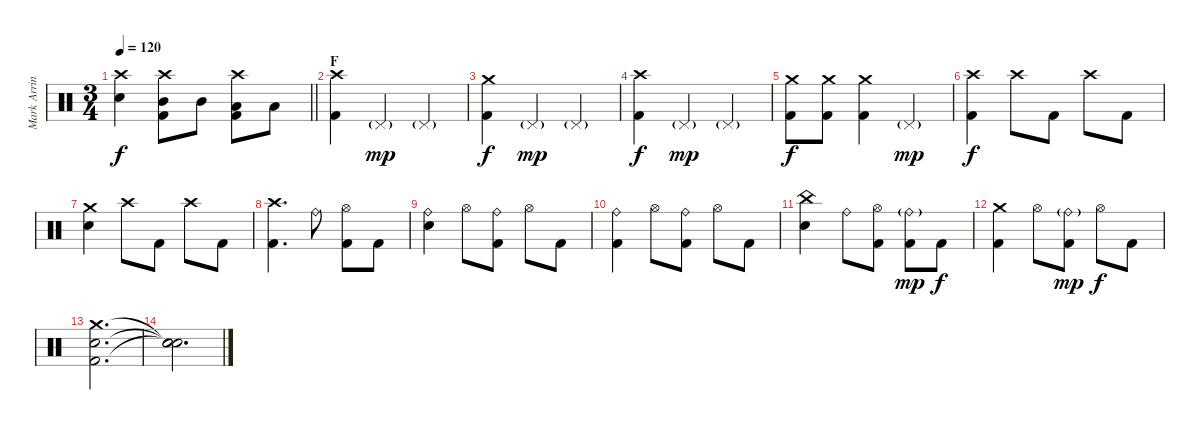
\track ("Mark Arrington Drums" "Mark Arrin") {instrument percussion}
\staff {score}
\articulation defaults
\ts (3 4)
\tempo 120
\clef neutral
\barLineRight lightlight
\ks c
("Crash high (hit)" "Electric Snare (hit)").4{dy f} ("Crash high (hit)" "Mid Tom (hit)" "Kick (hit) 2").8 "Mid Tom (hit)".8 ("Crash high (hit)" "Low Tom (hit)" "Kick (hit) 2").8 "Low Tom (hit)".8 |
\section ("" "F")
("Crash high (hit)" "Kick (hit) 2").4 "Pedal Hi-Hat (hit)"{g}.4{dy mp} "Pedal Hi-Hat (hit)"{g}.4 |
("Crash medium (hit)" "Kick (hit) 2").4{dy f} "Pedal Hi-Hat (hit)"{g}.4{dy mp} "Pedal Hi-Hat (hit)"{g}.4 |
("Crash high (hit)" "Kick (hit) 2").4{dy f} "Pedal Hi-Hat (hit)"{g}.4{dy mp} "Pedal Hi-Hat (hit)"{g}.4 |
("Crash medium (hit)" "Kick (hit) 2").8{dy f} ("Crash medium (hit)" "Kick (hit) 2").8 ("Crash medium (hit)" "Kick (hit) 2").4 "Pedal Hi-Hat (hit)"{g}.4{dy mp} |
("Crash high (hit)" "Kick (hit) 2").4{dy f} "Crash high (hit)".8 "Kick (hit) 2".8 "Crash high (hit)".8 "Kick (hit) 2".8 |
("Crash medium (hit)" "Electric Snare (hit)").4 "Crash high (hit)".8 "Kick (hit) 2".8 "Crash high (hit)".8 "Kick (hit) 2".8 |
("Crash high (hit)" "Kick (hit) 2").4{d} "Ride (bell)".8 ("Hi-Hat (open)" "Kick (hit) 2").8 "Kick (hit) 2".8 |
("Ride (bell)" "Electric Snare (hit)").4 "Hi-Hat (open)".8 ("Ride (bell)" "Kick (hit) 2").8 "Hi-Hat (open)".8 "Kick (hit) 2".8 |
("Ride (bell)" "Kick (hit) 2").4 "Hi-Hat (open)".8 ("Ride (bell)" "Kick (hit) 2").8 "Hi-Hat (open)".8 "Kick (hit) 2".8 |
("China (hit)" "Electric Snare (hit)").4 "Ride (bell)".8 ("Hi-Hat (open)" "Kick (hit) 2").8 ("Ride (bell)"{g} "Kick (hit) 2").8{dy mp} "Kick (hit) 2".8{dy f} |
("Crash medium (hit)" "Kick (hit) 2").4 "Hi-Hat (open)".8 ("Ride (bell)"{g} "Kick (hit) 2").8{dy mp} "Hi-Hat (open)".8{dy f} "Kick (hit) 2".8 |
("Crash medium (hit)" "Electric Snare (hit)" "Kick (hit) 2").2{d} |
("Snare (hit)"{t} "Snare (hit)"{t} "Snare (hit)"{t}).2{d}
